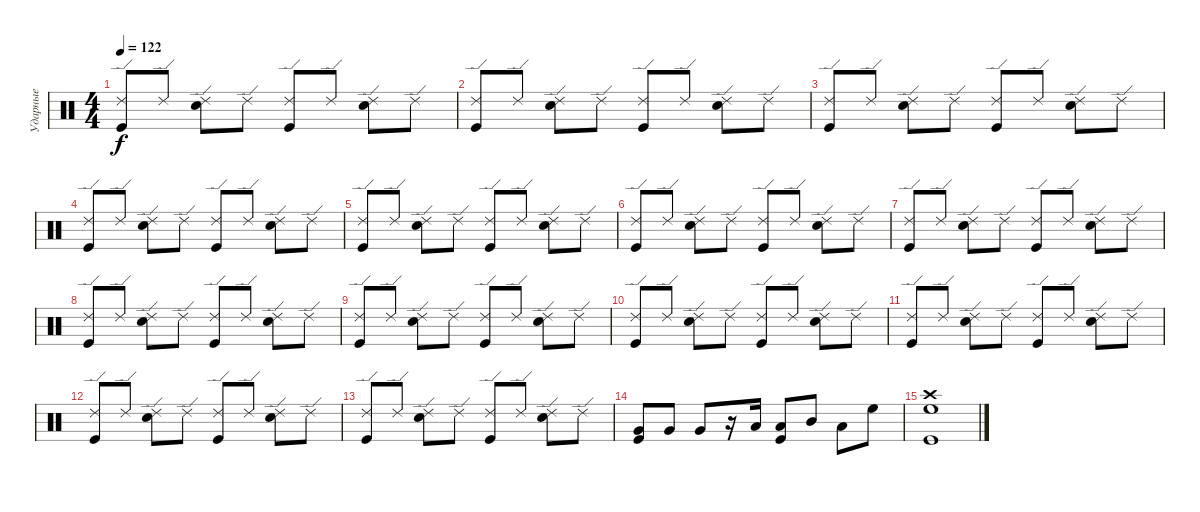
\track ("Ударные" "Ударные") {instrument percussion}
\staff {score}
\articulation defaults
\ts (4 4)
\tempo 122
\clef neutral
\ks c
("Kick (hit)" "Ride (edge) 2").8{dy f} "Ride (edge) 2".8 ("Ride (edge) 2" "Electric Snare (hit)").8 "Ride (edge) 2".8 ("Kick (hit)" "Ride (edge) 2").8 "Ride (edge) 2".8 ("Electric Snare (hit)" "Ride (edge) 2").8 "Ride (edge) 2".8 |
("Kick (hit)" "Ride (edge) 2").8 "Ride (edge) 2".8 ("Ride (edge) 2" "Electric Snare (hit)").8 "Ride (edge) 2".8 ("Kick (hit)" "Ride (edge) 2").8 "Ride (edge) 2".8 ("Electric Snare (hit)" "Ride (edge) 2").8 "Ride (edge) 2".8 |
("Kick (hit)" "Ride (edge) 2").8 "Ride (edge) 2".8 ("Ride (edge) 2" "Electric Snare (hit)").8 "Ride (edge) 2".8 ("Kick (hit)" "Ride (edge) 2").8 "Ride (edge) 2".8 ("Electric Snare (hit)" "Ride (edge) 2").8 "Ride (edge) 2".8 |
("Kick (hit)" "Ride (edge) 2").8 "Ride (edge) 2".8 ("Ride (edge) 2" "Electric Snare (hit)").8 "Ride (edge) 2".8 ("Kick (hit)" "Ride (edge) 2").8 "Ride (edge) 2".8 ("Electric Snare (hit)" "Ride (edge) 2").8 "Ride (edge) 2".8 |
("Kick (hit)" "Ride (edge) 2").8 "Ride (edge) 2".8 ("Ride (edge) 2" "Electric Snare (hit)").8 "Ride (edge) 2".8 ("Kick (hit)" "Ride (edge) 2").8 "Ride (edge) 2".8 ("Electric Snare (hit)" "Ride (edge) 2").8 "Ride (edge) 2".8 |
("Kick (hit)" "Ride (edge) 2").8 "Ride (edge) 2".8 ("Ride (edge) 2" "Electric Snare (hit)").8 "Ride (edge) 2".8 ("Kick (hit)" "Ride (edge) 2").8 "Ride (edge) 2".8 ("Electric Snare (hit)" "Ride (edge) 2").8 "Ride (edge) 2".8 |
("Kick (hit)" "Ride (edge) 2").8 "Ride (edge) 2".8 ("Ride (edge) 2" "Electric Snare (hit)").8 "Ride (edge) 2".8 ("Kick (hit)" "Ride (edge) 2").8 "Ride (edge) 2".8 ("Electric Snare (hit)" "Ride (edge) 2").8 "Ride (edge) 2".8 |
("Kick (hit)" "Ride (edge) 2").8 "Ride (edge) 2".8 ("Ride (edge) 2" "Electric Snare (hit)").8 "Ride (edge) 2".8 ("Kick (hit)" "Ride (edge) 2").8 "Ride (edge) 2".8 ("Electric Snare (hit)" "Ride (edge) 2").8 "Ride (edge) 2".8 |
("Kick (hit)" "Ride (edge) 2").8 "Ride (edge) 2".8 ("Ride (edge) 2" "Electric Snare (hit)").8 "Ride (edge) 2".8 ("Kick (hit)" "Ride (edge) 2").8 "Ride (edge) 2".8 ("Electric Snare (hit)" "Ride (edge) 2").8 "Ride (edge) 2".8 |
("Kick (hit)" "Ride (edge) 2").8 "Ride (edge) 2".8 ("Ride (edge) 2" "Electric Snare (hit)").8 "Ride (edge) 2".8 ("Kick (hit)" "Ride (edge) 2").8 "Ride (edge) 2".8 ("Electric Snare (hit)" "Ride (edge) 2").8 "Ride (edge) 2".8 |
("Kick (hit)" "Ride (edge) 2").8 "Ride (edge) 2".8 ("Ride (edge) 2" "Electric Snare (hit)").8 "Ride (edge) 2".8 ("Kick (hit)" "Ride (edge) 2").8 "Ride (edge) 2".8 ("Electric Snare (hit)" "Ride (edge) 2").8 "Ride (edge) 2".8 |
("Kick (hit)" "Ride (edge) 2").8 "Ride (edge) 2".8 ("Ride (edge) 2" "Electric Snare (hit)").8 "Ride (edge) 2".8 ("Kick (hit)" "Ride (edge) 2").8 "Ride (edge) 2".8 ("Electric Snare (hit)" "Ride (edge) 2").8 "Ride (edge) 2".8 |
("Kick (hit)" "Ride (edge) 2").8 "Ride (edge) 2".8 ("Ride (edge) 2" "Electric Snare (hit)").8 "Ride (edge) 2".8 ("Kick (hit)" "Ride (edge) 2").8 "Ride (edge) 2".8 ("Electric Snare (hit)" "Ride (edge) 2").8 "Ride (edge) 2".8 |
("Kick (hit)" "Very Low Tom (hit)").8 "Very Low Tom (hit)".8 "Very Low Tom (hit)".8 r.16 "Low Tom (hit)".16 ("Kick (hit)" "Low Tom (hit)").8 "Mid Tom (hit)".8 "Low Tom (hit)".8 "High Floor Tom (hit)".8 |
("Kick (hit)" "High Floor Tom (hit)" "Crash high (hit)").1
